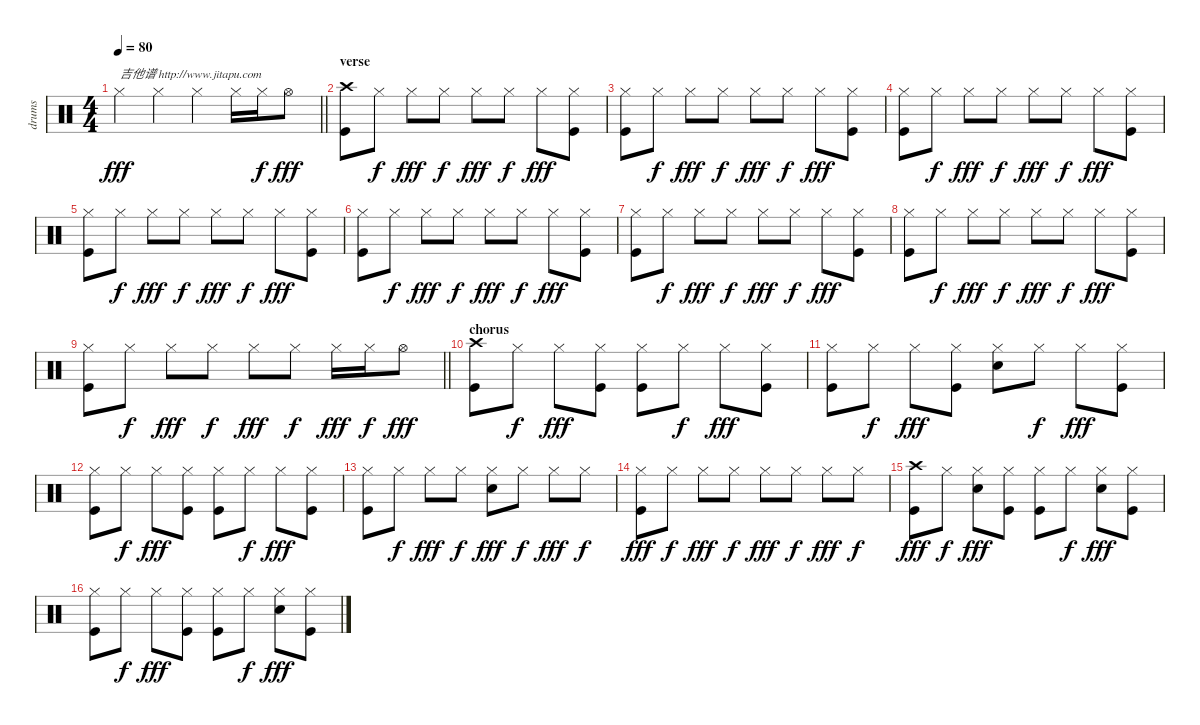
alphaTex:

\track ("drums" "drums") {instrument percussion}
\staff {score}
\articulation defaults
\ts (4 4)
\tempo 80
\clef neutral
\barLineRight lightlight
\ks c "Hi-Hat (closed)".4{txt "吉他谱 http://www.jitapu.com" dy fff} "Hi-Hat (closed)".4 "Hi-Hat (closed)".4 "Hi-Hat (closed)".16 "Hi-Hat (closed)".16{dy f} "Hi-Hat (open)".8{dy fff}
|
\section ("" "verse")
("Crash high (hit)" "Kick (hit)").8 "Hi-Hat (closed)".8{dy f} "Hi-Hat (closed)".8{dy fff} "Hi-Hat (closed)".8{dy f} "Hi-Hat (closed)".8{dy fff} "Hi-Hat (closed)".8{dy f} "Hi-Hat (closed)".8{dy fff} ("Hi-Hat (closed)" "Kick (hit)").8 |
("Hi-Hat (closed)" "Kick (hit)").8 "Hi-Hat (closed)".8{dy f} "Hi-Hat (closed)".8{dy fff} "Hi-Hat (closed)".8{dy f} "Hi-Hat (closed)".8{dy fff} "Hi-Hat (closed)".8{dy f} "Hi-Hat (closed)".8{dy fff} ("Hi-Hat (closed)" "Kick (hit)").8 |
("Hi-Hat (closed)" "Kick (hit)").8 "Hi-Hat (closed)".8{dy f} "Hi-Hat (closed)".8{dy fff} "Hi-Hat (closed)".8{dy f} "Hi-Hat (closed)".8{dy fff} "Hi-Hat (closed)".8{dy f} "Hi-Hat (closed)".8{dy fff} ("Hi-Hat (closed)" "Kick (hit)").8 |
("Hi-Hat (closed)" "Kick (hit)").8 "Hi-Hat (closed)".8{dy f} "Hi-Hat (closed)".8{dy fff} "Hi-Hat (closed)".8{dy f} "Hi-Hat (closed)".8{dy fff} "Hi-Hat (closed)".8{dy f} "Hi-Hat (closed)".8{dy fff} ("Hi-Hat (closed)" "Kick (hit)").8 |
("Hi-Hat (closed)" "Kick (hit)").8 "Hi-Hat (closed)".8{dy f} "Hi-Hat (closed)".8{dy fff} "Hi-Hat (closed)".8{dy f} "Hi-Hat (closed)".8{dy fff} "Hi-Hat (closed)".8{dy f} "Hi-Hat (closed)".8{dy fff} ("Hi-Hat (closed)" "Kick (hit)").8 |
("Hi-Hat (closed)" "Kick (hit)").8 "Hi-Hat (closed)".8{dy f} "Hi-Hat (closed)".8{dy fff} "Hi-Hat (closed)".8{dy f} "Hi-Hat (closed)".8{dy fff} "Hi-Hat (closed)".8{dy f} "Hi-Hat (closed)".8{dy fff} ("Hi-Hat (closed)" "Kick (hit)").8 |
("Hi-Hat (closed)" "Kick (hit)").8 "Hi-Hat (closed)".8{dy f} "Hi-Hat (closed)".8{dy fff} "Hi-Hat (closed)".8{dy f} "Hi-Hat (closed)".8{dy fff} "Hi-Hat (closed)".8{dy f} "Hi-Hat (closed)".8{dy fff} ("Hi-Hat (closed)" "Kick (hit)").8 |
\barLineRight lightlight
("Hi-Hat (closed)" "Kick (hit)").8 "Hi-Hat (closed)".8{dy f} "Hi-Hat (closed)".8{dy fff} "Hi-Hat (closed)".8{dy f} "Hi-Hat (closed)".8{dy fff} "Hi-Hat (closed)".8{dy f} "Hi-Hat (closed)".16{dy fff} "Hi-Hat (closed)".16{dy f} "Hi-Hat (open)".8{dy fff} |
\section ("" "chorus")
("Crash high (hit)" "Kick (hit)").8 "Hi-Hat (closed)".8{dy f} "Hi-Hat (closed)".8{dy fff} ("Hi-Hat (closed)" "Kick (hit)").8 ("Hi-Hat (closed)" "Kick (hit)").8 "Hi-Hat (closed)".8{dy f} "Hi-Hat (closed)".8{dy fff} ("Hi-Hat (closed)" "Kick (hit)").8 |
("Hi-Hat (closed)" "Kick (hit)").8 "Hi-Hat (closed)".8{dy f} "Hi-Hat (closed)".8{dy fff} ("Hi-Hat (closed)" "Kick (hit)").8 ("Hi-Hat (closed)" "Snare (hit) 2").8 "Hi-Hat (closed)".8{dy f} "Hi-Hat (closed)".8{dy fff} ("Hi-Hat (closed)" "Kick (hit)").8 |
("Hi-Hat (closed)" "Kick (hit)").8 "Hi-Hat (closed)".8{dy f} "Hi-Hat (closed)".8{dy fff} ("Hi-Hat (closed)" "Kick (hit)").8 ("Hi-Hat (closed)" "Kick (hit)").8 "Hi-Hat (closed)".8{dy f} "Hi-Hat (closed)".8{dy fff} ("Hi-Hat (closed)" "Kick (hit)").8 |
("Hi-Hat (closed)" "Kick (hit)").8 "Hi-Hat (closed)".8{dy f} "Hi-Hat (closed)".8{dy fff} "Hi-Hat (closed)".8{dy f} ("Hi-Hat (closed)" "Snare (hit) 2").8{dy fff} "Hi-Hat (closed)".8{dy f} "Hi-Hat (closed)".8{dy fff} "Hi-Hat (closed)".8{dy f} |
("Hi-Hat (closed)" "Kick (hit)").8{dy fff} "Hi-Hat (closed)".8{dy f} "Hi-Hat (closed)".8{dy fff} "Hi-Hat (closed)".8{dy f} "Hi-Hat (closed)".8{dy fff} "Hi-Hat (closed)".8{dy f} "Hi-Hat (closed)".8{dy fff} "Hi-Hat (closed)".8{dy f} |
("Crash high (hit)" "Kick (hit)").8{dy fff} "Hi-Hat (closed)".8{dy f} ("Hi-Hat (closed)" "Snare (hit) 2").8{dy fff} ("Hi-Hat (closed)" "Kick (hit)").8 ("Hi-Hat (closed)" "Kick (hit)").8 "Hi-Hat (closed)".8{dy f} ("Hi-Hat (closed)" "Snare (hit) 2").8{dy fff} ("Hi-Hat (closed)" "Kick (hit)").8 |
("Hi-Hat (closed)" "Kick (hit)").8 "Hi-Hat (closed)".8{dy f} "Hi-Hat (closed)".8{dy fff} ("Hi-Hat (closed)" "Kick (hit)").8 ("Hi-Hat (closed)" "Kick (hit)").8 "Hi-Hat (closed)".8{dy f} ("Hi-Hat (closed)" "Snare (hit) 2").8{dy fff} ("Hi-Hat (closed)" "Kick (hit)").8
